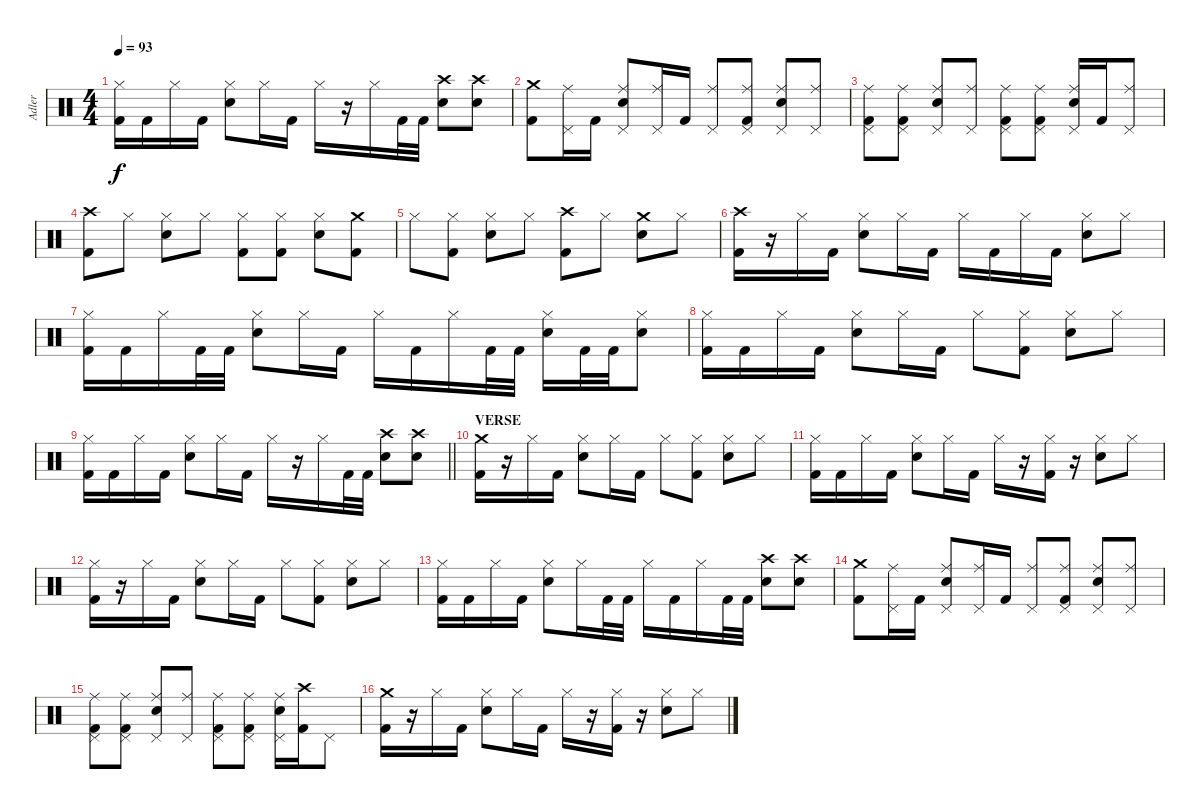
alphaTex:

\track ("Adler" "Adler") {instrument percussion}
\staff {score}
\articulation defaults
\ts (4 4)
\tempo 93
\clef neutral
\ks c
("Hi-Hat (closed)" "Kick (hit) 2").16{dy f} "Kick (hit) 2".16 "Hi-Hat (closed)".16 "Kick (hit) 2".16 ("Hi-Hat (closed)" "Snare (hit) 2").8 "Hi-Hat (closed)".16 "Kick (hit) 2".16 "Hi-Hat (closed)".16 r.16 "Hi-Hat (closed)".16 "Kick (hit) 2".32 "Kick (hit) 2".32 ("Crash high (hit)" "Snare (hit) 2").8 ("Crash high (hit)" "Snare (hit) 2").8 |
("Crash medium (hit)" "Kick (hit) 2").8 ("Pedal Hi-Hat (hit)" "Ride (middle)").16 "Kick (hit) 2".16 ("Snare (hit) 2" "Pedal Hi-Hat (hit)" "Ride (middle)").8 ("Pedal Hi-Hat (hit)" "Ride (middle)").16 "Kick (hit) 2".16 ("Pedal Hi-Hat (hit)" "Ride (middle)").8 ("Kick (hit) 2" "Pedal Hi-Hat (hit)" "Ride (middle)").8 ("Snare (hit) 2" "Pedal Hi-Hat (hit)" "Ride (middle)").8 ("Pedal Hi-Hat (hit)" "Ride (middle)").8 |
("Kick (hit) 2" "Pedal Hi-Hat (hit)" "Ride (middle)").8 ("Kick (hit) 2" "Pedal Hi-Hat (hit)" "Ride (middle)").8 ("Snare (hit) 2" "Pedal Hi-Hat (hit)" "Ride (middle)").8 ("Pedal Hi-Hat (hit)" "Ride (middle)").8 ("Kick (hit) 2" "Pedal Hi-Hat (hit)" "Ride (middle)").8 ("Kick (hit) 2" "Pedal Hi-Hat (hit)" "Ride (middle)").8 ("Snare (hit) 2" "Pedal Hi-Hat (hit)" "Ride (middle)").16 "Kick (hit) 2".16 ("Pedal Hi-Hat (hit)" "Ride (middle)").8 |
("Crash high (hit)" "Kick (hit) 2").8 "Hi-Hat (closed)".8 ("Snare (hit) 2" "Hi-Hat (closed)").8 "Hi-Hat (closed)".8 ("Kick (hit) 2" "Hi-Hat (closed)").8 ("Kick (hit) 2" "Hi-Hat (closed)").8 ("Snare (hit) 2" "Hi-Hat (closed)").8 ("Crash medium (hit)" "Kick (hit) 2").8 |
"Hi-Hat (closed)".8 ("Kick (hit) 2" "Hi-Hat (closed)").8 ("Snare (hit) 2" "Hi-Hat (closed)").8 "Hi-Hat (closed)".8 ("Crash high (hit)" "Kick (hit) 2").8 "Hi-Hat (closed)".8 ("Crash medium (hit)" "Snare (hit) 2").8 "Hi-Hat (closed)".8 |
("Crash high (hit)" "Kick (hit) 2").16 r.16 "Hi-Hat (closed)".16 "Kick (hit) 2".16 ("Hi-Hat (closed)" "Snare (hit) 2").8 "Hi-Hat (closed)".16 "Kick (hit) 2".16 "Hi-Hat (closed)".16 "Kick (hit) 2".16 "Hi-Hat (closed)".16 "Kick (hit) 2".16 ("Hi-Hat (closed)" "Snare (hit) 2").8 "Hi-Hat (closed)".8 |
("Hi-Hat (closed)" "Kick (hit) 2").16 "Kick (hit) 2".16 "Hi-Hat (closed)".16 "Kick (hit) 2".32 "Kick (hit) 2".32 ("Hi-Hat (closed)" "Snare (hit) 2").8 "Hi-Hat (closed)".16 "Kick (hit) 2".16 "Hi-Hat (closed)".16 "Kick (hit) 2".16 "Hi-Hat (closed)".16 "Kick (hit) 2".32 "Kick (hit) 2".32 ("Hi-Hat (closed)" "Snare (hit) 2").16 "Kick (hit) 2".32 "Kick (hit) 2".32 ("Hi-Hat (closed)" "Snare (hit) 2").8 |
("Hi-Hat (closed)" "Kick (hit) 2").16 "Kick (hit) 2".16 "Hi-Hat (closed)".16 "Kick (hit) 2".16 ("Hi-Hat (closed)" "Snare (hit) 2").8 "Hi-Hat (closed)".16 "Kick (hit) 2".16 "Hi-Hat (closed)".8 ("Hi-Hat (closed)" "Kick (hit) 2").8 ("Hi-Hat (closed)" "Snare (hit) 2").8 "Hi-Hat (closed)".8 |
\barLineRight lightlight
("Hi-Hat (closed)" "Kick (hit) 2").16 "Kick (hit) 2".16 "Hi-Hat (closed)".16 "Kick (hit) 2".16 ("Hi-Hat (closed)" "Snare (hit) 2").8 "Hi-Hat (closed)".16 "Kick (hit) 2".16 "Hi-Hat (closed)".16 r.16 "Hi-Hat (closed)".16 "Kick (hit) 2".32 "Kick (hit) 2".32 ("Crash high (hit)" "Snare (hit) 2").8 ("Crash high (hit)" "Snare (hit) 2").8 |
\section ("" "VERSE")
("Crash medium (hit)" "Kick (hit) 2").16 r.16 "Hi-Hat (closed)".16 "Kick (hit) 2".16 ("Hi-Hat (closed)" "Snare (hit) 2").8 "Hi-Hat (closed)".16 "Kick (hit) 2".16 "Hi-Hat (closed)".8 ("Hi-Hat (closed)" "Kick (hit) 2").8 ("Hi-Hat (closed)" "Snare (hit) 2").8 "Hi-Hat (closed)".8 |
("Hi-Hat (closed)" "Kick (hit) 2").16 "Kick (hit) 2".16 "Hi-Hat (closed)".16 "Kick (hit) 2".16 ("Hi-Hat (closed)" "Snare (hit) 2").8 "Hi-Hat (closed)".16 "Kick (hit) 2".16 "Hi-Hat (closed)".16 r.16 ("Hi-Hat (closed)" "Kick (hit) 2").16 r.16 ("Hi-Hat (closed)" "Snare (hit) 2").8 "Hi-Hat (closed)".8 |
("Hi-Hat (closed)" "Kick (hit) 2").16 r.16 "Hi-Hat (closed)".16 "Kick (hit) 2".16 ("Hi-Hat (closed)" "Snare (hit) 2").8 "Hi-Hat (closed)".16 "Kick (hit) 2".16 "Hi-Hat (closed)".8 ("Hi-Hat (closed)" "Kick (hit) 2").8 ("Hi-Hat (closed)" "Snare (hit) 2").8 "Hi-Hat (closed)".8 |
("Hi-Hat (closed)" "Kick (hit) 2").16 "Kick (hit) 2".16 "Hi-Hat (closed)".16 "Kick (hit) 2".16 ("Hi-Hat (closed)" "Snare (hit) 2").8 "Hi-Hat (closed)".16 "Kick (hit) 2".32 "Kick (hit) 2".32 "Hi-Hat (closed)".16 "Kick (hit) 2".16 "Hi-Hat (closed)".16 "Kick (hit) 2".32 "Kick (hit) 2".32 ("Crash high (hit)" "Snare (hit) 2").8 ("Crash high (hit)" "Snare (hit) 2").8 |
("Crash medium (hit)" "Kick (hit) 2").8 ("Pedal Hi-Hat (hit)" "Ride (middle)").16 "Kick (hit) 2".16 ("Snare (hit) 2" "Pedal Hi-Hat (hit)" "Ride (middle)").8 ("Pedal Hi-Hat (hit)" "Ride (middle)").16 "Kick (hit) 2".16 ("Pedal Hi-Hat (hit)" "Ride (middle)").8 ("Kick (hit) 2" "Pedal Hi-Hat (hit)" "Ride (middle)").8 ("Snare (hit) 2" "Pedal Hi-Hat (hit)" "Ride (middle)").8 ("Pedal Hi-Hat (hit)" "Ride (middle)").8 |
("Kick (hit) 2" "Pedal Hi-Hat (hit)" "Ride (middle)").8 ("Kick (hit) 2" "Pedal Hi-Hat (hit)" "Ride (middle)").8 ("Snare (hit) 2" "Pedal Hi-Hat (hit)" "Ride (middle)").8 ("Pedal Hi-Hat (hit)" "Ride (middle)").8 ("Kick (hit) 2" "Pedal Hi-Hat (hit)" "Ride (middle)").8 ("Kick (hit) 2" "Pedal Hi-Hat (hit)" "Ride (middle)").8 ("Snare (hit) 2" "Pedal Hi-Hat (hit)" "Ride (middle)").16 ("Crash high (hit)" "Kick (hit) 2").16 "Pedal Hi-Hat (hit)".8 |
("Crash medium (hit)" "Kick (hit) 2").16 r.16 "Hi-Hat (closed)".16 "Kick (hit) 2".16 ("Hi-Hat (closed)" "Snare (hit) 2").8 "Hi-Hat (closed)".16 "Kick (hit) 2".16 "Hi-Hat (closed)".16 r.16 ("Hi-Hat (closed)" "Kick (hit) 2").16 r.16 ("Hi-Hat (closed)" "Snare (hit) 2").8 "Hi-Hat (closed)".8
